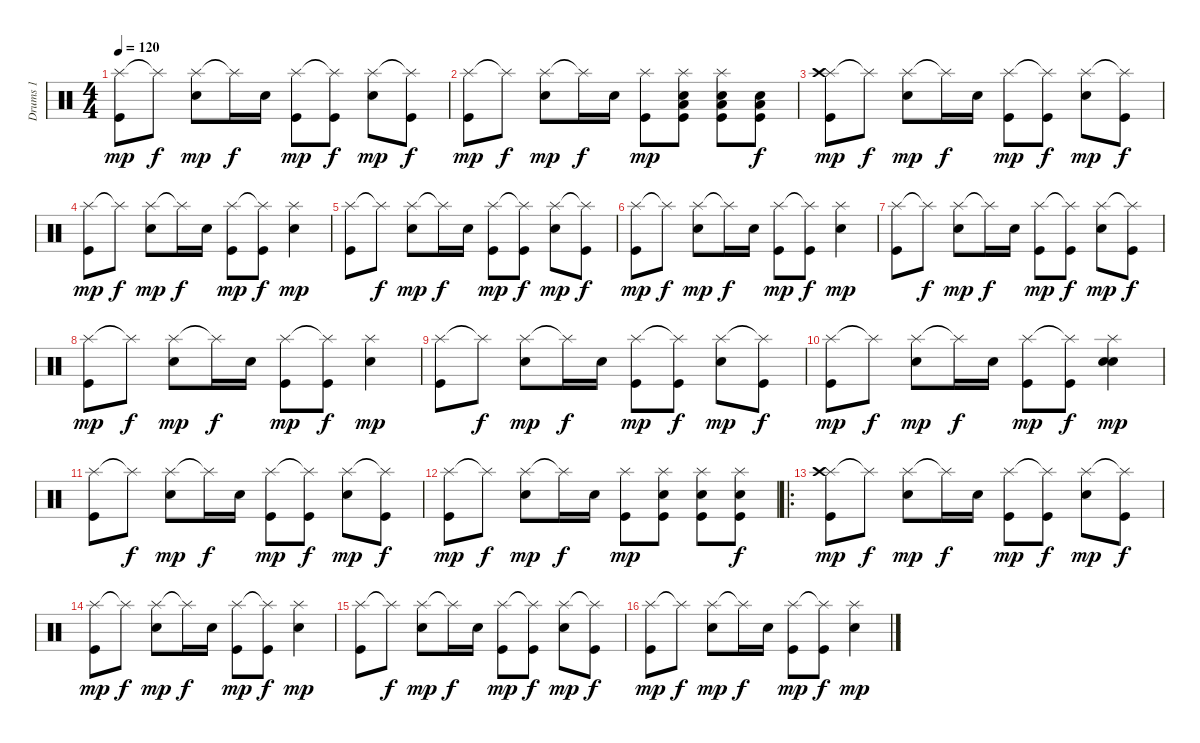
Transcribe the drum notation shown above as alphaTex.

\track ("Drums 1" "Drums 1") {instrument percussion}
\staff {score}
\articulation defaults
\ts (4 4)
\tempo 120
\clef neutral
\ks c
("Splash (hit)" "Kick (hit)").8{dy mp} "Splash (hit)"{t}.8{dy f} ("Splash (hit)" "Electric Snare (hit)").8{dy mp} "Splash (hit)"{t}.16{dy f} "Electric Snare (hit)".16 ("Splash (hit)" "Kick (hit)").8{dy mp} ("Splash (hit)"{t} "Kick (hit)").8{dy f} ("Splash (hit)" "Electric Snare (hit)").8{dy mp} ("Splash (hit)"{t} "Kick (hit)").8{dy f} |
("Splash (hit)" "Kick (hit)").8{dy mp} "Splash (hit)"{t}.8{dy f} ("Splash (hit)" "Electric Snare (hit)").8{dy mp} "Splash (hit)"{t}.16{dy f} "Electric Snare (hit)".16 ("Splash (hit)" "Kick (hit)").8{dy mp} ("Splash (hit)" "Kick (hit)" "Low Tom (hit)" "Snare (hit) 2").8 ("Splash (hit)" "Kick (hit)" "Low Tom (hit)" "Snare (hit) 2").8 ("Kick (hit)" "Low Tom (hit)" "Snare (hit) 2").8{dy f} |
("Splash (hit)" "Kick (hit)" "Crash high (hit)").8{dy mp} "Splash (hit)"{t}.8{dy f} ("Splash (hit)" "Electric Snare (hit)").8{dy mp} "Splash (hit)"{t}.16{dy f} "Electric Snare (hit)".16 ("Splash (hit)" "Kick (hit)").8{dy mp} ("Splash (hit)"{t} "Kick (hit)").8{dy f} ("Splash (hit)" "Electric Snare (hit)").8{dy mp} ("Splash (hit)"{t} "Kick (hit)").8{dy f} |
("Splash (hit)" "Kick (hit)").8{dy mp} "Splash (hit)"{t}.8{dy f} ("Splash (hit)" "Electric Snare (hit)").8{dy mp} "Splash (hit)"{t}.16{dy f} "Electric Snare (hit)".16 ("Splash (hit)" "Kick (hit)").8{dy mp} ("Splash (hit)"{t} "Kick (hit)").8{dy f} ("Splash (hit)" "Electric Snare (hit)").4{dy mp} |
("Splash (hit)" "Kick (hit)").8 "Splash (hit)"{t}.8{dy f} ("Splash (hit)" "Electric Snare (hit)").8{dy mp} "Splash (hit)"{t}.16{dy f} "Electric Snare (hit)".16 ("Splash (hit)" "Kick (hit)").8{dy mp} ("Splash (hit)"{t} "Kick (hit)").8{dy f} ("Splash (hit)" "Electric Snare (hit)").8{dy mp} ("Splash (hit)"{t} "Kick (hit)").8{dy f} |
("Splash (hit)" "Kick (hit)").8{dy mp} "Splash (hit)"{t}.8{dy f} ("Splash (hit)" "Electric Snare (hit)").8{dy mp} "Splash (hit)"{t}.16{dy f} "Electric Snare (hit)".16 ("Splash (hit)" "Kick (hit)").8{dy mp} ("Splash (hit)"{t} "Kick (hit)").8{dy f} ("Splash (hit)" "Electric Snare (hit)").4{dy mp} |
("Splash (hit)" "Kick (hit)").8 "Splash (hit)"{t}.8{dy f} ("Splash (hit)" "Electric Snare (hit)").8{dy mp} "Splash (hit)"{t}.16{dy f} "Electric Snare (hit)".16 ("Splash (hit)" "Kick (hit)").8{dy mp} ("Splash (hit)"{t} "Kick (hit)").8{dy f} ("Splash (hit)" "Electric Snare (hit)").8{dy mp} ("Splash (hit)"{t} "Kick (hit)").8{dy f} |
("Splash (hit)" "Kick (hit)").8{dy mp} "Splash (hit)"{t}.8{dy f} ("Splash (hit)" "Electric Snare (hit)").8{dy mp} "Splash (hit)"{t}.16{dy f} "Electric Snare (hit)".16 ("Splash (hit)" "Kick (hit)").8{dy mp} ("Splash (hit)"{t} "Kick (hit)").8{dy f} ("Splash (hit)" "Electric Snare (hit)").4{dy mp} |
("Splash (hit)" "Kick (hit)").8 "Splash (hit)"{t}.8{dy f} ("Splash (hit)" "Electric Snare (hit)").8{dy mp} "Splash (hit)"{t}.16{dy f} "Electric Snare (hit)".16 ("Splash (hit)" "Kick (hit)").8{dy mp} ("Splash (hit)"{t} "Kick (hit)").8{dy f} ("Splash (hit)" "Electric Snare (hit)").8{dy mp} ("Splash (hit)"{t} "Kick (hit)").8{dy f} |
("Splash (hit)" "Kick (hit)").8{dy mp} "Splash (hit)"{t}.8{dy f} ("Splash (hit)" "Electric Snare (hit)").8{dy mp} "Splash (hit)"{t}.16{dy f} "Electric Snare (hit)".16 ("Splash (hit)" "Kick (hit)").8{dy mp} ("Splash (hit)"{t} "Kick (hit)").8{dy f} ("Splash (hit)" "Electric Snare (hit)" "Snare (hit) 2").4{dy mp} |
("Splash (hit)" "Kick (hit)").8 "Splash (hit)"{t}.8{dy f} ("Splash (hit)" "Electric Snare (hit)").8{dy mp} "Splash (hit)"{t}.16{dy f} "Electric Snare (hit)".16 ("Splash (hit)" "Kick (hit)").8{dy mp} ("Splash (hit)"{t} "Kick (hit)").8{dy f} ("Splash (hit)" "Electric Snare (hit)").8{dy mp} ("Splash (hit)"{t} "Kick (hit)").8{dy f} |
("Splash (hit)" "Kick (hit)").8{dy mp} "Splash (hit)"{t}.8{dy f} ("Splash (hit)" "Electric Snare (hit)").8{dy mp} "Splash (hit)"{t}.16{dy f} "Electric Snare (hit)".16 ("Splash (hit)" "Kick (hit)").8{dy mp} ("Splash (hit)" "Electric Snare (hit)" "Kick (hit)").8 ("Splash (hit)" "Electric Snare (hit)" "Kick (hit)").8 ("Splash (hit)" "Electric Snare (hit)" "Kick (hit)").8{dy f} |
\ro
("Splash (hit)" "Kick (hit)" "Crash high (hit)").8{dy mp} "Splash (hit)"{t}.8{dy f} ("Splash (hit)" "Electric Snare (hit)").8{dy mp} "Splash (hit)"{t}.16{dy f} "Electric Snare (hit)".16 ("Splash (hit)" "Kick (hit)").8{dy mp} ("Splash (hit)"{t} "Kick (hit)").8{dy f} ("Splash (hit)" "Electric Snare (hit)").8{dy mp} ("Splash (hit)"{t} "Kick (hit)").8{dy f} |
("Splash (hit)" "Kick (hit)").8{dy mp} "Splash (hit)"{t}.8{dy f} ("Splash (hit)" "Electric Snare (hit)").8{dy mp} "Splash (hit)"{t}.16{dy f} "Electric Snare (hit)".16 ("Splash (hit)" "Kick (hit)").8{dy mp} ("Splash (hit)"{t} "Kick (hit)").8{dy f} ("Splash (hit)" "Electric Snare (hit)").4{dy mp} |
("Splash (hit)" "Kick (hit)").8 "Splash (hit)"{t}.8{dy f} ("Splash (hit)" "Electric Snare (hit)").8{dy mp} "Splash (hit)"{t}.16{dy f} "Electric Snare (hit)".16 ("Splash (hit)" "Kick (hit)").8{dy mp} ("Splash (hit)"{t} "Kick (hit)").8{dy f} ("Splash (hit)" "Electric Snare (hit)").8{dy mp} ("Splash (hit)"{t} "Kick (hit)").8{dy f} |
("Splash (hit)" "Kick (hit)").8{dy mp} "Splash (hit)"{t}.8{dy f} ("Splash (hit)" "Electric Snare (hit)").8{dy mp} "Splash (hit)"{t}.16{dy f} "Electric Snare (hit)".16 ("Splash (hit)" "Kick (hit)").8{dy mp} ("Splash (hit)"{t} "Kick (hit)").8{dy f} ("Splash (hit)" "Electric Snare (hit)").4{dy mp}
